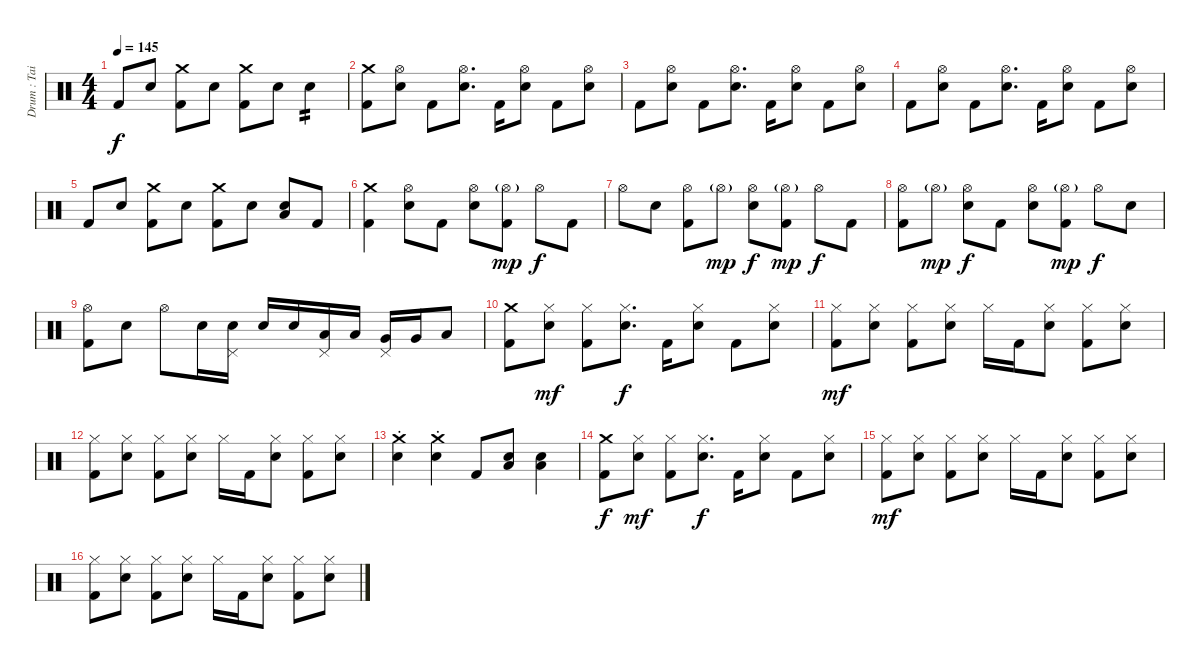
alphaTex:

\track ("Drum : Tainaka Ritsu" "Drum : Tai") {instrument percussion}
\staff {score}
\articulation defaults
\ts (4 4)
\tempo 145
\clef neutral
\ks c "Kick (hit) 2".8{dy f} "Electric Snare (hit)".8
("Crash medium (hit)" "Kick (hit) 2").8 "Electric Snare (hit)".8 ("Crash medium (hit)" "Kick (hit) 2").8 "Electric Snare (hit)".8 "Electric Snare (hit)".4{tp 2} |
("Crash medium (hit)" "Kick (hit) 2").8 ("Hi-Hat (open)" "Electric Snare (hit)").8 "Kick (hit) 2".8 ("Hi-Hat (open)" "Electric Snare (hit)").8{d} "Kick (hit) 2".16 ("Hi-Hat (open)" "Electric Snare (hit)").8 "Kick (hit) 2".8 ("Hi-Hat (open)" "Electric Snare (hit)").8 |
"Kick (hit) 2".8 ("Hi-Hat (open)" "Electric Snare (hit)").8 "Kick (hit) 2".8 ("Hi-Hat (open)" "Electric Snare (hit)").8{d} "Kick (hit) 2".16 ("Hi-Hat (open)" "Electric Snare (hit)").8 "Kick (hit) 2".8 ("Hi-Hat (open)" "Electric Snare (hit)").8 |
"Kick (hit) 2".8 ("Hi-Hat (open)" "Electric Snare (hit)").8 "Kick (hit) 2".8 ("Hi-Hat (open)" "Electric Snare (hit)").8{d} "Kick (hit) 2".16 ("Hi-Hat (open)" "Electric Snare (hit)").8 "Kick (hit) 2".8 ("Hi-Hat (open)" "Electric Snare (hit)").8 |
"Kick (hit) 2".8 "Electric Snare (hit)".8 ("Crash medium (hit)" "Kick (hit) 2").8 "Electric Snare (hit)".8 ("Crash medium (hit)" "Kick (hit) 2").8 "Electric Snare (hit)".8 ("Low Floor Tom (hit)" "Electric Snare (hit)").8 "Kick (hit) 2".8 |
("Crash medium (hit)" "Kick (hit) 2").4 ("Hi-Hat (open)" "Electric Snare (hit)").8 "Kick (hit) 2".8 ("Hi-Hat (open)" "Electric Snare (hit)").8 ("Hi-Hat (open)"{g} "Kick (hit) 2").8{dy mp} "Hi-Hat (open)".8{dy f} "Kick (hit) 2".8 |
"Hi-Hat (open)".8 "Electric Snare (hit)".8 ("Hi-Hat (open)" "Kick (hit) 2").8 "Hi-Hat (open)"{g}.8{dy mp} ("Hi-Hat (open)" "Electric Snare (hit)").8{dy f} ("Hi-Hat (open)"{g} "Kick (hit) 2").8{dy mp} "Hi-Hat (open)".8{dy f} "Kick (hit) 2".8 |
("Hi-Hat (open)" "Kick (hit) 2").8 "Hi-Hat (open)"{g}.8{dy mp} ("Hi-Hat (open)" "Electric Snare (hit)").8{dy f} "Kick (hit) 2".8 ("Hi-Hat (open)" "Electric Snare (hit)").8 ("Hi-Hat (open)"{g} "Kick (hit) 2").8{dy mp} "Hi-Hat (open)".8{dy f} "Electric Snare (hit)".8 |
("Hi-Hat (open)" "Kick (hit) 2").8 "Electric Snare (hit)".8 "Hi-Hat (open)".8 "Electric Snare (hit)".16 ("Pedal Hi-Hat (hit)" "Electric Snare (hit)").16 "Electric Snare (hit)".16 "Electric Snare (hit)".16 ("Pedal Hi-Hat (hit)" "Low Tom (hit)").16 "Low Tom (hit)".16 ("Pedal Hi-Hat (hit)" "Very Low Tom (hit)").16 "Very Low Tom (hit)".16 "Low Floor Tom (hit)".8 |
("Crash medium (hit)" "Kick (hit) 2").8 ("Hi-Hat (closed)" "Electric Snare (hit)").8{dy mf} ("Hi-Hat (closed)" "Kick (hit) 2").8 ("Hi-Hat (closed)" "Electric Snare (hit)").8{d dy f} "Kick (hit) 2".16 ("Hi-Hat (closed)" "Electric Snare (hit)").8 "Kick (hit) 2".8 ("Hi-Hat (closed)" "Electric Snare (hit)").8 |
("Hi-Hat (closed)" "Kick (hit) 2").8{dy mf} ("Hi-Hat (closed)" "Electric Snare (hit)").8 ("Hi-Hat (closed)" "Kick (hit) 2").8 ("Hi-Hat (closed)" "Electric Snare (hit)").8 "Hi-Hat (closed)".16 "Kick (hit) 2".16 ("Hi-Hat (closed)" "Electric Snare (hit)").8 ("Hi-Hat (closed)" "Kick (hit) 2").8 ("Hi-Hat (closed)" "Electric Snare (hit)").8 |
("Hi-Hat (closed)" "Kick (hit) 2").8 ("Hi-Hat (closed)" "Electric Snare (hit)").8 ("Hi-Hat (closed)" "Kick (hit) 2").8 ("Hi-Hat (closed)" "Electric Snare (hit)").8 "Hi-Hat (closed)".16 "Kick (hit) 2".16 ("Hi-Hat (closed)" "Electric Snare (hit)").8 ("Hi-Hat (closed)" "Kick (hit) 2").8 ("Hi-Hat (closed)" "Electric Snare (hit)").8 |
("Crash medium (hit)"{st} "Electric Snare (hit)"{st}).4 ("Crash medium (hit)"{st} "Electric Snare (hit)"{st}).4 "Kick (hit) 2".8 ("Low Floor Tom (hit)" "Electric Snare (hit)").8 ("Low Floor Tom (hit)" "Electric Snare (hit)").4 |
("Crash medium (hit)" "Kick (hit) 2").8{dy f} ("Hi-Hat (closed)" "Electric Snare (hit)").8{dy mf} ("Hi-Hat (closed)" "Kick (hit) 2").8 ("Hi-Hat (closed)" "Electric Snare (hit)").8{d dy f} "Kick (hit) 2".16 ("Hi-Hat (closed)" "Electric Snare (hit)").8 "Kick (hit) 2".8 ("Hi-Hat (closed)" "Electric Snare (hit)").8 |
("Hi-Hat (closed)" "Kick (hit) 2").8{dy mf} ("Hi-Hat (closed)" "Electric Snare (hit)").8 ("Hi-Hat (closed)" "Kick (hit) 2").8 ("Hi-Hat (closed)" "Electric Snare (hit)").8 "Hi-Hat (closed)".16 "Kick (hit) 2".16 ("Hi-Hat (closed)" "Electric Snare (hit)").8 ("Hi-Hat (closed)" "Kick (hit) 2").8 ("Hi-Hat (closed)" "Electric Snare (hit)").8 |
("Hi-Hat (closed)" "Kick (hit) 2").8 ("Hi-Hat (closed)" "Electric Snare (hit)").8 ("Hi-Hat (closed)" "Kick (hit) 2").8 ("Hi-Hat (closed)" "Electric Snare (hit)").8 "Hi-Hat (closed)".16 "Kick (hit) 2".16 ("Hi-Hat (closed)" "Electric Snare (hit)").8 ("Hi-Hat (closed)" "Kick (hit) 2").8 ("Hi-Hat (closed)" "Electric Snare (hit)").8
